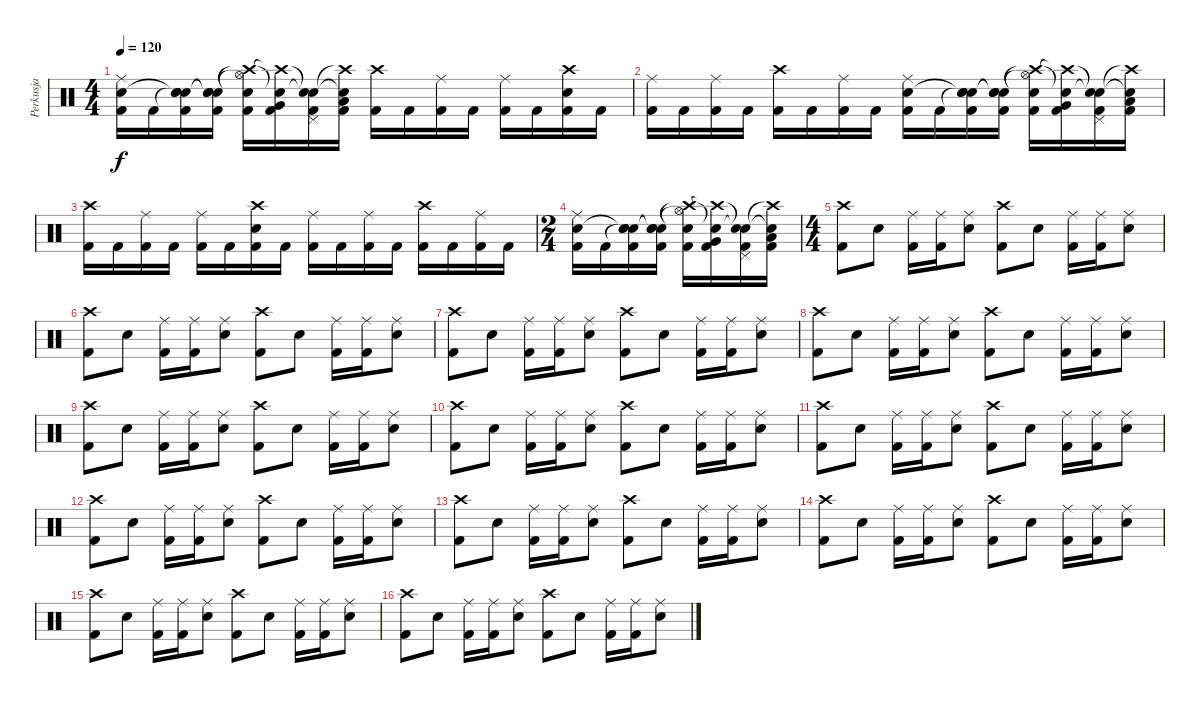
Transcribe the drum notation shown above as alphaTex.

\track ("Perkusja" "Perkusja") {instrument percussion}
\staff {score}
\articulation defaults
\ts (4 4)
\tempo 120
\clef neutral
\ks c
("Ride (middle)" "Electric Snare (hit)" "Kick (hit) 2").16{dy f} "Kick (hit) 2".16 ("Snare (hit)"{t} "Snare (hit)"{t} "Electric Snare (hit)" "Kick (hit) 2").16 ("Snare (hit)"{t} "Snare (hit)"{t} "Electric Snare (hit)" "Kick (hit) 2").16 ("Crash high (hit)"{t} "Hi-Hat (open)"{t} "Electric Snare (hit)" "Kick (hit) 2").16 ("Snare (hit)"{t} "Crash high (hit)"{t} "Very Low Tom (hit)" "Kick (hit) 2").16 ("Snare (hit)"{t} "Snare (hit)"{t} "Pedal Hi-Hat (hit)" "Kick (hit) 2").16 ("Snare (hit)"{t} "Crash high (hit)"{t} "Low Floor Tom (hit)" "Kick (hit) 2").16 ("Crash high (hit)" "Kick (hit) 2").16 "Kick (hit) 2".16 ("Ride (middle)" "Kick (hit) 2").16 "Kick (hit) 2".16 ("Ride (middle)" "Kick (hit) 2").16 "Kick (hit) 2".16 ("Crash high (hit)" "Electric Snare (hit)" "Kick (hit) 2").16 "Kick (hit) 2".16 |
("Ride (middle)" "Kick (hit) 2").16 "Kick (hit) 2".16 ("Ride (middle)" "Kick (hit) 2").16 "Kick (hit) 2".16 ("Crash high (hit)" "Kick (hit) 2").16 "Kick (hit) 2".16 ("Ride (middle)" "Kick (hit) 2").16 "Kick (hit) 2".16 ("Ride (middle)" "Electric Snare (hit)" "Kick (hit) 2").16 "Kick (hit) 2".16 ("Snare (hit)"{t} "Snare (hit)"{t} "Electric Snare (hit)" "Kick (hit) 2").16 ("Snare (hit)"{t} "Snare (hit)"{t} "Electric Snare (hit)" "Kick (hit) 2").16 ("Crash high (hit)"{t} "Hi-Hat (open)"{t} "Electric Snare (hit)" "Kick (hit) 2").16 ("Snare (hit)"{t} "Crash high (hit)"{t} "Very Low Tom (hit)" "Kick (hit) 2").16 ("Snare (hit)"{t} "Snare (hit)"{t} "Pedal Hi-Hat (hit)" "Kick (hit) 2").16 ("Snare (hit)"{t} "Crash high (hit)"{t} "Low Floor Tom (hit)" "Kick (hit) 2").16 |
("Crash high (hit)" "Kick (hit) 2").16 "Kick (hit) 2".16 ("Ride (middle)" "Kick (hit) 2").16 "Kick (hit) 2".16 ("Ride (middle)" "Kick (hit) 2").16 "Kick (hit) 2".16 ("Crash high (hit)" "Electric Snare (hit)" "Kick (hit) 2").16 "Kick (hit) 2".16 ("Ride (middle)" "Kick (hit) 2").16 "Kick (hit) 2".16 ("Ride (middle)" "Kick (hit) 2").16 "Kick (hit) 2".16 ("Crash high (hit)" "Kick (hit) 2").16 "Kick (hit) 2".16 ("Ride (middle)" "Kick (hit) 2").16 "Kick (hit) 2".16 |
\ts (2 4)
("Ride (middle)" "Electric Snare (hit)" "Kick (hit) 2").16 "Kick (hit) 2".16 ("Snare (hit)"{t} "Snare (hit)"{t} "Electric Snare (hit)" "Kick (hit) 2").16 ("Snare (hit)"{t} "Snare (hit)"{t} "Electric Snare (hit)" "Kick (hit) 2").16 ("Crash high (hit)"{t} "Hi-Hat (open)"{t} "Electric Snare (hit)" "Kick (hit) 2").16 ("Snare (hit)"{t} "Crash high (hit)"{t} "Very Low Tom (hit)" "Kick (hit) 2").16 ("Snare (hit)"{t} "Snare (hit)"{t} "Pedal Hi-Hat (hit)" "Kick (hit) 2").16 ("Snare (hit)"{t} "Crash high (hit)"{t} "Low Floor Tom (hit)" "Kick (hit) 2").16 |
\ts (4 4)
("Crash high (hit)" "Kick (hit) 2").8 "Electric Snare (hit)".8 ("Ride (middle)" "Kick (hit) 2").16 ("Ride (middle)" "Kick (hit) 2").16 ("Ride (middle)" "Electric Snare (hit)").8 ("Crash high (hit)" "Kick (hit) 2").8 "Electric Snare (hit)".8 ("Ride (middle)" "Kick (hit) 2").16 ("Ride (middle)" "Kick (hit) 2").16 ("Ride (middle)" "Electric Snare (hit)").8 |
("Crash high (hit)" "Kick (hit) 2").8 "Electric Snare (hit)".8 ("Ride (middle)" "Kick (hit) 2").16 ("Ride (middle)" "Kick (hit) 2").16 ("Ride (middle)" "Electric Snare (hit)").8 ("Crash high (hit)" "Kick (hit) 2").8 "Electric Snare (hit)".8 ("Ride (middle)" "Kick (hit) 2").16 ("Ride (middle)" "Kick (hit) 2").16 ("Ride (middle)" "Electric Snare (hit)").8 |
("Crash high (hit)" "Kick (hit) 2").8 "Electric Snare (hit)".8 ("Ride (middle)" "Kick (hit) 2").16 ("Ride (middle)" "Kick (hit) 2").16 ("Ride (middle)" "Electric Snare (hit)").8 ("Crash high (hit)" "Kick (hit) 2").8 "Electric Snare (hit)".8 ("Ride (middle)" "Kick (hit) 2").16 ("Ride (middle)" "Kick (hit) 2").16 ("Ride (middle)" "Electric Snare (hit)").8 |
("Crash high (hit)" "Kick (hit) 2").8 "Electric Snare (hit)".8 ("Ride (middle)" "Kick (hit) 2").16 ("Ride (middle)" "Kick (hit) 2").16 ("Ride (middle)" "Electric Snare (hit)").8 ("Crash high (hit)" "Kick (hit) 2").8 "Electric Snare (hit)".8 ("Ride (middle)" "Kick (hit) 2").16 ("Ride (middle)" "Kick (hit) 2").16 ("Ride (middle)" "Electric Snare (hit)").8 |
("Crash high (hit)" "Kick (hit) 2").8 "Electric Snare (hit)".8 ("Ride (middle)" "Kick (hit) 2").16 ("Ride (middle)" "Kick (hit) 2").16 ("Ride (middle)" "Electric Snare (hit)").8 ("Crash high (hit)" "Kick (hit) 2").8 "Electric Snare (hit)".8 ("Ride (middle)" "Kick (hit) 2").16 ("Ride (middle)" "Kick (hit) 2").16 ("Ride (middle)" "Electric Snare (hit)").8 |
("Crash high (hit)" "Kick (hit) 2").8 "Electric Snare (hit)".8 ("Ride (middle)" "Kick (hit) 2").16 ("Ride (middle)" "Kick (hit) 2").16 ("Ride (middle)" "Electric Snare (hit)").8 ("Crash high (hit)" "Kick (hit) 2").8 "Electric Snare (hit)".8 ("Ride (middle)" "Kick (hit) 2").16 ("Ride (middle)" "Kick (hit) 2").16 ("Ride (middle)" "Electric Snare (hit)").8 |
("Crash high (hit)" "Kick (hit) 2").8 "Electric Snare (hit)".8 ("Ride (middle)" "Kick (hit) 2").16 ("Ride (middle)" "Kick (hit) 2").16 ("Ride (middle)" "Electric Snare (hit)").8 ("Crash high (hit)" "Kick (hit) 2").8 "Electric Snare (hit)".8 ("Ride (middle)" "Kick (hit) 2").16 ("Ride (middle)" "Kick (hit) 2").16 ("Ride (middle)" "Electric Snare (hit)").8 |
("Crash high (hit)" "Kick (hit) 2").8 "Electric Snare (hit)".8 ("Ride (middle)" "Kick (hit) 2").16 ("Ride (middle)" "Kick (hit) 2").16 ("Ride (middle)" "Electric Snare (hit)").8 ("Crash high (hit)" "Kick (hit) 2").8 "Electric Snare (hit)".8 ("Ride (middle)" "Kick (hit) 2").16 ("Ride (middle)" "Kick (hit) 2").16 ("Ride (middle)" "Electric Snare (hit)").8 |
("Crash high (hit)" "Kick (hit) 2").8 "Electric Snare (hit)".8 ("Ride (middle)" "Kick (hit) 2").16 ("Ride (middle)" "Kick (hit) 2").16 ("Ride (middle)" "Electric Snare (hit)").8 ("Crash high (hit)" "Kick (hit) 2").8 "Electric Snare (hit)".8 ("Ride (middle)" "Kick (hit) 2").16 ("Ride (middle)" "Kick (hit) 2").16 ("Ride (middle)" "Electric Snare (hit)").8 |
("Crash high (hit)" "Kick (hit) 2").8 "Electric Snare (hit)".8 ("Ride (middle)" "Kick (hit) 2").16 ("Ride (middle)" "Kick (hit) 2").16 ("Ride (middle)" "Electric Snare (hit)").8 ("Crash high (hit)" "Kick (hit) 2").8 "Electric Snare (hit)".8 ("Ride (middle)" "Kick (hit) 2").16 ("Ride (middle)" "Kick (hit) 2").16 ("Ride (middle)" "Electric Snare (hit)").8 |
("Crash high (hit)" "Kick (hit) 2").8 "Electric Snare (hit)".8 ("Ride (middle)" "Kick (hit) 2").16 ("Ride (middle)" "Kick (hit) 2").16 ("Ride (middle)" "Electric Snare (hit)").8 ("Crash high (hit)" "Kick (hit) 2").8 "Electric Snare (hit)".8 ("Ride (middle)" "Kick (hit) 2").16 ("Ride (middle)" "Kick (hit) 2").16 ("Ride (middle)" "Electric Snare (hit)").8 |
("Crash high (hit)" "Kick (hit) 2").8 "Electric Snare (hit)".8 ("Ride (middle)" "Kick (hit) 2").16 ("Ride (middle)" "Kick (hit) 2").16 ("Ride (middle)" "Electric Snare (hit)").8 ("Crash high (hit)" "Kick (hit) 2").8 "Electric Snare (hit)".8 ("Ride (middle)" "Kick (hit) 2").16 ("Ride (middle)" "Kick (hit) 2").16 ("Ride (middle)" "Electric Snare (hit)").8
